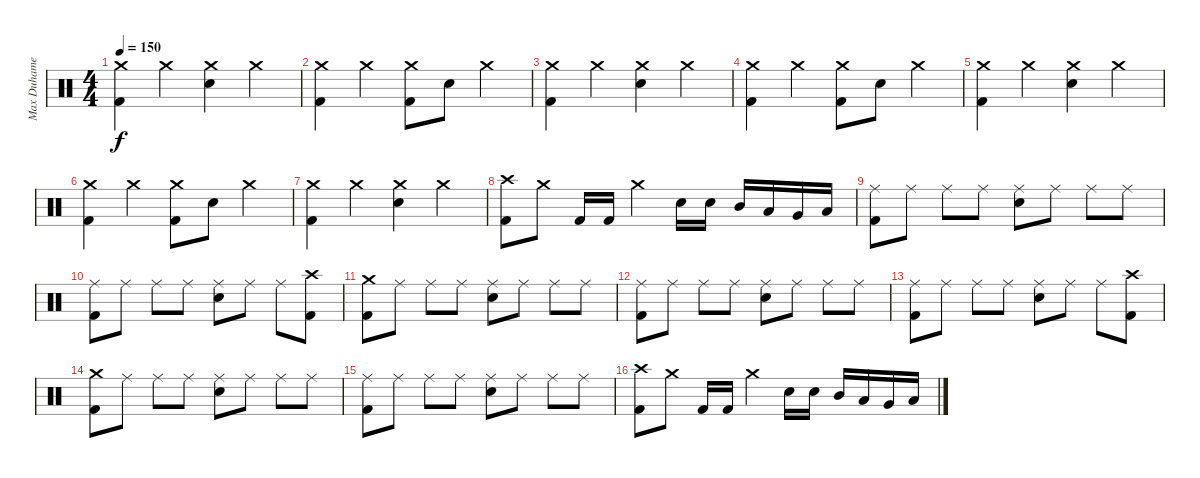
\track ("Max Duhamel (Drums)" "Max Duhame") {instrument percussion}
\staff {score}
\articulation defaults
\ts (4 4)
\tempo 150
\clef neutral
\ks c
("Crash medium (hit)" "Kick (hit) 2").4{dy f} "Crash medium (hit)".4 ("Crash medium (hit)" "Electric Snare (hit)").4 "Crash medium (hit)".4 |
("Crash medium (hit)" "Kick (hit) 2").4 "Crash medium (hit)".4 ("Crash medium (hit)" "Kick (hit) 2").8 "Electric Snare (hit)".8 "Crash medium (hit)".4 |
("Crash medium (hit)" "Kick (hit) 2").4 "Crash medium (hit)".4 ("Crash medium (hit)" "Electric Snare (hit)").4 "Crash medium (hit)".4 |
("Crash medium (hit)" "Kick (hit) 2").4 "Crash medium (hit)".4 ("Crash medium (hit)" "Kick (hit) 2").8 "Electric Snare (hit)".8 "Crash medium (hit)".4 |
("Crash medium (hit)" "Kick (hit) 2").4 "Crash medium (hit)".4 ("Crash medium (hit)" "Electric Snare (hit)").4 "Crash medium (hit)".4 |
("Crash medium (hit)" "Kick (hit) 2").4 "Crash medium (hit)".4 ("Crash medium (hit)" "Kick (hit) 2").8 "Electric Snare (hit)".8 "Crash medium (hit)".4 |
("Crash medium (hit)" "Kick (hit) 2").4 "Crash medium (hit)".4 ("Crash medium (hit)" "Electric Snare (hit)").4 "Crash medium (hit)".4 |
("Crash high (hit)" "Kick (hit) 2").8 "Crash medium (hit)".8 "Kick (hit) 2".16 "Kick (hit) 2".16 "Crash medium (hit)".4 "Electric Snare (hit)".16 "Electric Snare (hit)".16 "Mid Tom (hit)".16 "Low Tom (hit)".16 "Very Low Tom (hit)".16 "Low Floor Tom (hit)".16 |
("Ride (middle)" "Kick (hit) 2").8 "Ride (middle)".8 "Ride (middle)".8 "Ride (middle)".8 ("Ride (middle)" "Electric Snare (hit)").8 "Ride (middle)".8 "Ride (middle)".8 "Ride (middle)".8 |
("Ride (middle)" "Kick (hit) 2").8 "Ride (middle)".8 "Ride (middle)".8 "Ride (middle)".8 ("Ride (middle)" "Electric Snare (hit)").8 "Ride (middle)".8 "Ride (middle)".8 ("Crash high (hit)" "Kick (hit) 2").8 |
("Crash medium (hit)" "Kick (hit) 2").8 "Ride (middle)".8 "Ride (middle)".8 "Ride (middle)".8 ("Ride (middle)" "Electric Snare (hit)").8 "Ride (middle)".8 "Ride (middle)".8 "Ride (middle)".8 |
("Ride (middle)" "Kick (hit) 2").8 "Ride (middle)".8 "Ride (middle)".8 "Ride (middle)".8 ("Ride (middle)" "Electric Snare (hit)").8 "Ride (middle)".8 "Ride (middle)".8 "Ride (middle)".8 |
("Ride (middle)" "Kick (hit) 2").8 "Ride (middle)".8 "Ride (middle)".8 "Ride (middle)".8 ("Ride (middle)" "Electric Snare (hit)").8 "Ride (middle)".8 "Ride (middle)".8 ("Crash high (hit)" "Kick (hit) 2").8 |
("Crash medium (hit)" "Kick (hit) 2").8 "Ride (middle)".8 "Ride (middle)".8 "Ride (middle)".8 ("Ride (middle)" "Electric Snare (hit)").8 "Ride (middle)".8 "Ride (middle)".8 "Ride (middle)".8 |
("Ride (middle)" "Kick (hit) 2").8 "Ride (middle)".8 "Ride (middle)".8 "Ride (middle)".8 ("Ride (middle)" "Electric Snare (hit)").8 "Ride (middle)".8 "Ride (middle)".8 "Ride (middle)".8 |
("Crash high (hit)" "Kick (hit) 2").8 "Crash medium (hit)".8 "Kick (hit) 2".16 "Kick (hit) 2".16 "Crash medium (hit)".4 "Electric Snare (hit)".16 "Electric Snare (hit)".16 "Mid Tom (hit)".16 "Low Tom (hit)".16 "Very Low Tom (hit)".16 "Low Floor Tom (hit)".16
